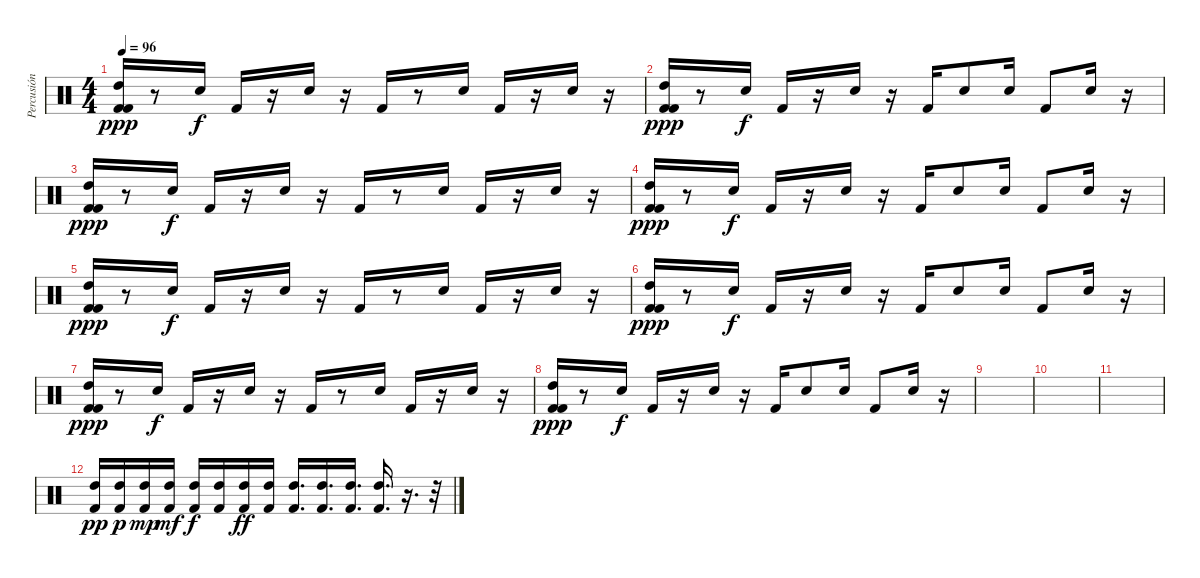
\track ("Percusión" "Percusión") {instrument percussion}
\staff {score}
\articulation defaults
\ts (4 4)
\tempo 96
\clef neutral
\ks c
("Kick (hit) 2" "High Tom (hit)" "Kick (hit) 2").16{dy ppp} r.8 "Snare (hit) 2".16{dy f} "Kick (hit) 2".16 r.16 "Snare (hit) 2".16 r.16 "Kick (hit) 2".16 r.8 "Snare (hit) 2".16 "Kick (hit) 2".16 r.16 "Snare (hit) 2".16 r.16 |
("Kick (hit) 2" "High Tom (hit)" "Kick (hit) 2").16{dy ppp} r.8 "Snare (hit) 2".16{dy f} "Kick (hit) 2".16 r.16 "Snare (hit) 2".16 r.16 "Kick (hit) 2".16 "Snare (hit) 2".8 "Snare (hit) 2".16 "Kick (hit) 2".8 "Snare (hit) 2".16 r.16 |
("Kick (hit) 2" "High Tom (hit)" "Kick (hit) 2").16{dy ppp} r.8 "Snare (hit) 2".16{dy f} "Kick (hit) 2".16 r.16 "Snare (hit) 2".16 r.16 "Kick (hit) 2".16 r.8 "Snare (hit) 2".16 "Kick (hit) 2".16 r.16 "Snare (hit) 2".16 r.16 |
("Kick (hit) 2" "High Tom (hit)" "Kick (hit) 2").16{dy ppp} r.8 "Snare (hit) 2".16{dy f} "Kick (hit) 2".16 r.16 "Snare (hit) 2".16 r.16 "Kick (hit) 2".16 "Snare (hit) 2".8 "Snare (hit) 2".16 "Kick (hit) 2".8 "Snare (hit) 2".16 r.16 |
("Kick (hit) 2" "High Tom (hit)" "Kick (hit) 2").16{dy ppp} r.8 "Snare (hit) 2".16{dy f} "Kick (hit) 2".16 r.16 "Snare (hit) 2".16 r.16 "Kick (hit) 2".16 r.8 "Snare (hit) 2".16 "Kick (hit) 2".16 r.16 "Snare (hit) 2".16 r.16 |
("Kick (hit) 2" "High Tom (hit)" "Kick (hit) 2").16{dy ppp} r.8 "Snare (hit) 2".16{dy f} "Kick (hit) 2".16 r.16 "Snare (hit) 2".16 r.16 "Kick (hit) 2".16 "Snare (hit) 2".8 "Snare (hit) 2".16 "Kick (hit) 2".8 "Snare (hit) 2".16 r.16 |
("Kick (hit) 2" "High Tom (hit)" "Kick (hit) 2").16{dy ppp} r.8 "Snare (hit) 2".16{dy f} "Kick (hit) 2".16 r.16 "Snare (hit) 2".16 r.16 "Kick (hit) 2".16 r.8 "Snare (hit) 2".16 "Kick (hit) 2".16 r.16 "Snare (hit) 2".16 r.16 |
("Kick (hit) 2" "High Tom (hit)" "Kick (hit) 2").16{dy ppp} r.8 "Snare (hit) 2".16{dy f} "Kick (hit) 2".16 r.16 "Snare (hit) 2".16 r.16 "Kick (hit) 2".16 "Snare (hit) 2".8 "Snare (hit) 2".16 "Kick (hit) 2".8 "Snare (hit) 2".16 r.16 |
|
|
|
("High Tom (hit)" "Kick (hit) 2").16{dy pp} ("High Tom (hit)" "Kick (hit) 2").16{dy p} ("High Tom (hit)" "Kick (hit) 2").16{dy mp} ("High Tom (hit)" "Kick (hit) 2").16{dy mf} ("High Tom (hit)" "Kick (hit) 2").16{dy f} ("High Tom (hit)" "Kick (hit) 2").16 ("High Tom (hit)" "Kick (hit) 2").16{dy ff} ("High Tom (hit)" "Kick (hit) 2").16 ("High Tom (hit)" "Kick (hit) 2").16{d} ("High Tom (hit)" "Kick (hit) 2").16{d} ("High Tom (hit)" "Kick (hit) 2").16{d} ("High Tom (hit)" "Kick (hit) 2").16{d} r.16{d} r.32
